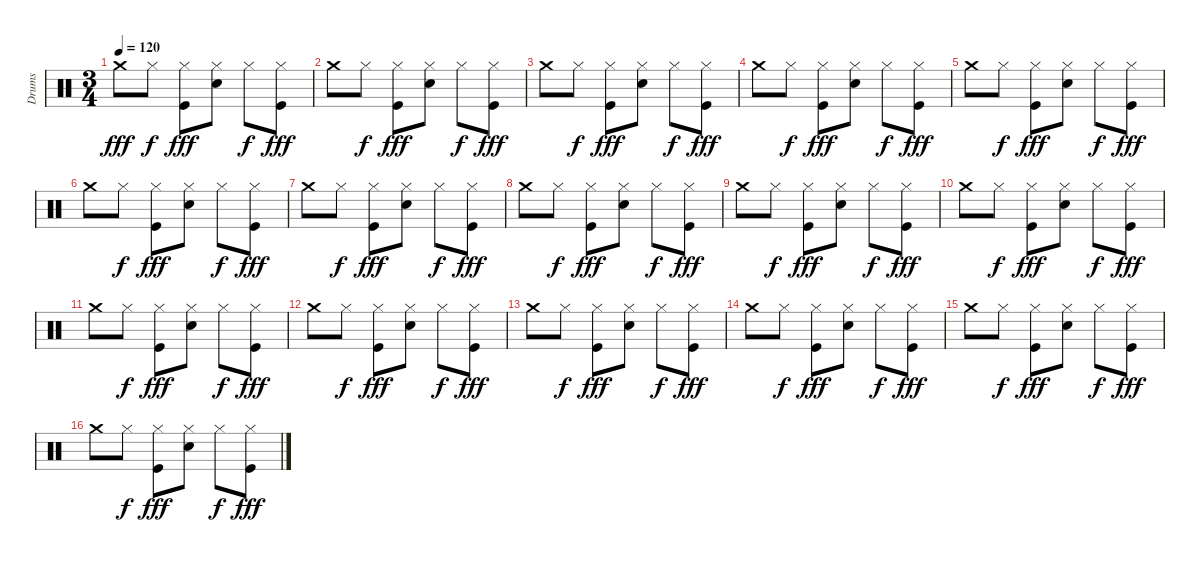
\track ("Drums" "Drums") {instrument percussion}
\staff {score}
\articulation defaults
\ts (3 4)
\tempo 120
\clef neutral
\ks c "Crash medium (hit)".8{dy fff} "Hi-Hat (closed)".8{dy f}
("Kick (hit)" "Hi-Hat (closed)").8{dy fff} ("Snare (hit) 2" "Hi-Hat (closed)").8 "Hi-Hat (closed)".8{dy f} ("Kick (hit)" "Hi-Hat (closed)").8{dy fff} |
"Crash medium (hit)".8 "Hi-Hat (closed)".8{dy f} ("Kick (hit)" "Hi-Hat (closed)").8{dy fff} ("Snare (hit) 2" "Hi-Hat (closed)").8 "Hi-Hat (closed)".8{dy f} ("Kick (hit)" "Hi-Hat (closed)").8{dy fff} |
"Crash medium (hit)".8 "Hi-Hat (closed)".8{dy f} ("Kick (hit)" "Hi-Hat (closed)").8{dy fff} ("Snare (hit) 2" "Hi-Hat (closed)").8 "Hi-Hat (closed)".8{dy f} ("Kick (hit)" "Hi-Hat (closed)").8{dy fff} |
"Crash medium (hit)".8 "Hi-Hat (closed)".8{dy f} ("Kick (hit)" "Hi-Hat (closed)").8{dy fff} ("Snare (hit) 2" "Hi-Hat (closed)").8 "Hi-Hat (closed)".8{dy f} ("Kick (hit)" "Hi-Hat (closed)").8{dy fff} |
"Crash medium (hit)".8 "Hi-Hat (closed)".8{dy f} ("Kick (hit)" "Hi-Hat (closed)").8{dy fff} ("Snare (hit) 2" "Hi-Hat (closed)").8 "Hi-Hat (closed)".8{dy f} ("Kick (hit)" "Hi-Hat (closed)").8{dy fff} |
"Crash medium (hit)".8 "Hi-Hat (closed)".8{dy f} ("Kick (hit)" "Hi-Hat (closed)").8{dy fff} ("Snare (hit) 2" "Hi-Hat (closed)").8 "Hi-Hat (closed)".8{dy f} ("Kick (hit)" "Hi-Hat (closed)").8{dy fff} |
"Crash medium (hit)".8 "Hi-Hat (closed)".8{dy f} ("Kick (hit)" "Hi-Hat (closed)").8{dy fff} ("Snare (hit) 2" "Hi-Hat (closed)").8 "Hi-Hat (closed)".8{dy f} ("Kick (hit)" "Hi-Hat (closed)").8{dy fff} |
"Crash medium (hit)".8 "Hi-Hat (closed)".8{dy f} ("Kick (hit)" "Hi-Hat (closed)").8{dy fff} ("Snare (hit) 2" "Hi-Hat (closed)").8 "Hi-Hat (closed)".8{dy f} ("Kick (hit)" "Hi-Hat (closed)").8{dy fff} |
"Crash medium (hit)".8 "Hi-Hat (closed)".8{dy f} ("Kick (hit)" "Hi-Hat (closed)").8{dy fff} ("Snare (hit) 2" "Hi-Hat (closed)").8 "Hi-Hat (closed)".8{dy f} ("Kick (hit)" "Hi-Hat (closed)").8{dy fff} |
"Crash medium (hit)".8 "Hi-Hat (closed)".8{dy f} ("Kick (hit)" "Hi-Hat (closed)").8{dy fff} ("Snare (hit) 2" "Hi-Hat (closed)").8 "Hi-Hat (closed)".8{dy f} ("Kick (hit)" "Hi-Hat (closed)").8{dy fff} |
"Crash medium (hit)".8 "Hi-Hat (closed)".8{dy f} ("Kick (hit)" "Hi-Hat (closed)").8{dy fff} ("Snare (hit) 2" "Hi-Hat (closed)").8 "Hi-Hat (closed)".8{dy f} ("Kick (hit)" "Hi-Hat (closed)").8{dy fff} |
"Crash medium (hit)".8 "Hi-Hat (closed)".8{dy f} ("Kick (hit)" "Hi-Hat (closed)").8{dy fff} ("Snare (hit) 2" "Hi-Hat (closed)").8 "Hi-Hat (closed)".8{dy f} ("Kick (hit)" "Hi-Hat (closed)").8{dy fff} |
"Crash medium (hit)".8 "Hi-Hat (closed)".8{dy f} ("Kick (hit)" "Hi-Hat (closed)").8{dy fff} ("Snare (hit) 2" "Hi-Hat (closed)").8 "Hi-Hat (closed)".8{dy f} ("Kick (hit)" "Hi-Hat (closed)").8{dy fff} |
"Crash medium (hit)".8 "Hi-Hat (closed)".8{dy f} ("Kick (hit)" "Hi-Hat (closed)").8{dy fff} ("Snare (hit) 2" "Hi-Hat (closed)").8 "Hi-Hat (closed)".8{dy f} ("Kick (hit)" "Hi-Hat (closed)").8{dy fff} |
"Crash medium (hit)".8 "Hi-Hat (closed)".8{dy f} ("Kick (hit)" "Hi-Hat (closed)").8{dy fff} ("Snare (hit) 2" "Hi-Hat (closed)").8 "Hi-Hat (closed)".8{dy f} ("Kick (hit)" "Hi-Hat (closed)").8{dy fff} |
"Crash medium (hit)".8 "Hi-Hat (closed)".8{dy f} ("Kick (hit)" "Hi-Hat (closed)").8{dy fff} ("Snare (hit) 2" "Hi-Hat (closed)").8 "Hi-Hat (closed)".8{dy f} ("Kick (hit)" "Hi-Hat (closed)").8{dy fff}
